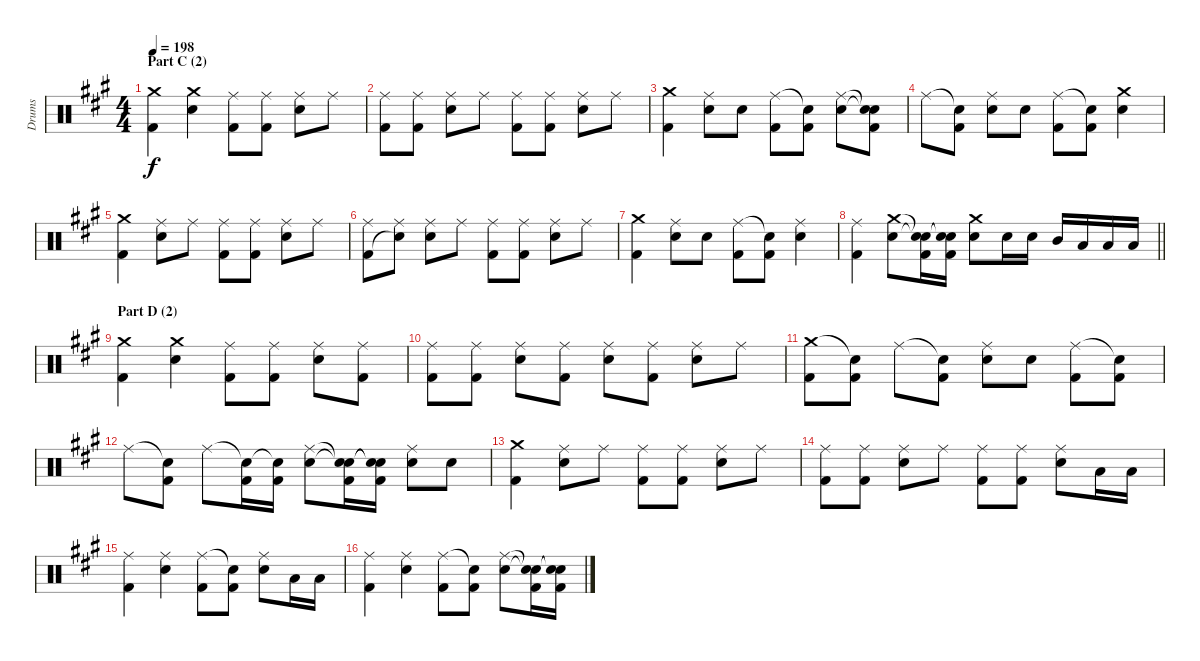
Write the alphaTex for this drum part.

\track ("Drums" "Drums") {instrument percussion}
\staff {score}
\articulation defaults
\ts (4 4)
\section ("" "Part C (2)")
\tempo 198
\clef neutral
\ks a
("Crash medium (hit)" "Kick (hit) 2").4{dy f} ("Crash medium (hit)" "Electric Snare (hit)").4 ("Ride (middle)" "Kick (hit) 2").8 ("Ride (middle)" "Kick (hit) 2").8 ("Ride (middle)" "Electric Snare (hit)").8 "Ride (middle)".8 |
("Ride (middle)" "Kick (hit) 2").8 ("Ride (middle)" "Kick (hit) 2").8 ("Ride (middle)" "Electric Snare (hit)").8 "Ride (middle)".8 ("Ride (middle)" "Kick (hit) 2").8 ("Ride (middle)" "Kick (hit) 2").8 ("Ride (middle)" "Electric Snare (hit)").8 "Ride (middle)".8 |
("Crash medium (hit)" "Kick (hit) 2").4 ("Ride (middle)" "Electric Snare (hit)").8 "Electric Snare (hit)".8 ("Ride (middle)" "Kick (hit) 2").8 ("Snare (hit)"{t} "Kick (hit) 2").8 ("Ride (middle)" "Electric Snare (hit)").8 ("Snare (hit)"{t} "Snare (hit)"{t} "Kick (hit) 2").8 |
"Ride (middle)".8 ("Snare (hit)"{t} "Kick (hit) 2").8 ("Ride (middle)" "Electric Snare (hit)").8 "Electric Snare (hit)".8 ("Ride (middle)" "Kick (hit) 2").8 ("Snare (hit)"{t} "Kick (hit) 2").8 ("Crash medium (hit)" "Electric Snare (hit)").4 |
("Crash medium (hit)" "Kick (hit) 2").4 ("Ride (middle)" "Electric Snare (hit)").8 "Ride (middle)".8 ("Ride (middle)" "Kick (hit) 2").8 ("Ride (middle)" "Kick (hit) 2").8 ("Ride (middle)" "Electric Snare (hit)").8 "Ride (middle)".8 |
("Ride (middle)" "Kick (hit) 2").8 ("Ride (middle)" "Snare (hit)"{t}).8 ("Ride (middle)" "Electric Snare (hit)").8 "Ride (middle)".8 ("Ride (middle)" "Kick (hit) 2").8 ("Ride (middle)" "Kick (hit) 2").8 ("Ride (middle)" "Electric Snare (hit)").8 "Ride (middle)".8 |
("Crash medium (hit)" "Kick (hit) 2").4 ("Ride (middle)" "Electric Snare (hit)").8 "Electric Snare (hit)".8 ("Ride (middle)" "Kick (hit) 2").8 ("Snare (hit)"{t} "Kick (hit) 2").8 ("Ride (middle)" "Electric Snare (hit)").4 |
\barLineRight lightlight
("Ride (middle)" "Kick (hit) 2").4 ("Crash medium (hit)" "Electric Snare (hit)").8 ("Snare (hit)"{t} "Snare (hit)"{t} "Kick (hit) 2").16 ("Snare (hit)"{t} "Snare (hit)"{t} "Kick (hit) 2").16 ("Crash medium (hit)" "Electric Snare (hit)").8 "Snare (hit) 2".16 "Electric Snare (hit)".16 "Mid Tom (hit)".16 "Low Tom (hit)".16 "Low Tom (hit)".16 "Low Floor Tom (hit)".16 |
\section ("" "Part D (2)")
("Crash medium (hit)" "Kick (hit) 2").4 ("Crash medium (hit)" "Electric Snare (hit)").4 ("Ride (middle)" "Kick (hit) 2").8 ("Ride (middle)" "Kick (hit) 2").8 ("Ride (middle)" "Electric Snare (hit)").8 ("Ride (middle)" "Kick (hit) 2").8 |
("Ride (middle)" "Kick (hit) 2").8 ("Ride (middle)" "Kick (hit) 2").8 ("Ride (middle)" "Electric Snare (hit)").8 ("Ride (middle)" "Kick (hit) 2").8 ("Ride (middle)" "Electric Snare (hit)").8 ("Ride (middle)" "Kick (hit) 2").8 ("Ride (middle)" "Electric Snare (hit)").8 "Ride (middle)".8 |
("Crash medium (hit)" "Kick (hit) 2").8 ("Snare (hit)"{t} "Kick (hit) 2").8 "Ride (middle)".8 ("Snare (hit)"{t} "Kick (hit) 2").8 ("Ride (middle)" "Electric Snare (hit)").8 "Electric Snare (hit)".8 ("Ride (middle)" "Kick (hit) 2").8 ("Snare (hit)"{t} "Kick (hit) 2").8 |
"Ride (middle)".8 ("Snare (hit)"{t} "Kick (hit) 2").8 "Ride (middle)".8 ("Snare (hit)"{t} "Kick (hit) 2").16 ("Snare (hit)"{t} "Kick (hit) 2").16 ("Ride (middle)" "Electric Snare (hit)").8 ("Snare (hit)"{t} "Snare (hit)"{t} "Kick (hit) 2").16 ("Snare (hit)"{t} "Snare (hit)"{t} "Kick (hit) 2").16 ("Ride (middle)" "Electric Snare (hit)").8 "Electric Snare (hit)".8 |
("Crash medium (hit)" "Kick (hit) 2").4 ("Ride (middle)" "Electric Snare (hit)").8 "Ride (middle)".8 ("Ride (middle)" "Kick (hit) 2").8 ("Ride (middle)" "Kick (hit) 2").8 ("Ride (middle)" "Electric Snare (hit)").8 "Ride (middle)".8 |
("Ride (middle)" "Kick (hit) 2").8 ("Ride (middle)" "Kick (hit) 2").8 ("Ride (middle)" "Electric Snare (hit)").8 "Ride (middle)".8 ("Ride (middle)" "Kick (hit) 2").8 ("Ride (middle)" "Kick (hit) 2").8 ("Ride (middle)" "Electric Snare (hit)").8 "Low Floor Tom (hit)".16 "Low Floor Tom (hit)".16 |
("Ride (middle)" "Kick (hit) 2").4 ("Ride (middle)" "Electric Snare (hit)").4 ("Ride (middle)" "Kick (hit) 2").8 ("Snare (hit)"{t} "Kick (hit) 2").8 ("Ride (middle)" "Electric Snare (hit)").8 "Low Floor Tom (hit)".16 "Low Floor Tom (hit)".16 |
("Ride (middle)" "Kick (hit) 2").4 ("Ride (middle)" "Electric Snare (hit)").4 ("Ride (middle)" "Kick (hit) 2").8 ("Snare (hit)"{t} "Kick (hit) 2").8 ("Ride (middle)" "Electric Snare (hit)").8 ("Snare (hit)"{t} "Snare (hit)"{t} "Kick (hit) 2").16 ("Snare (hit)"{t} "Snare (hit)"{t} "Kick (hit) 2").16
